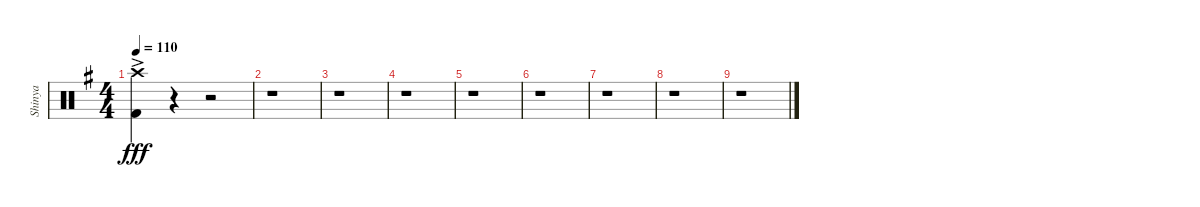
\track ("Shinya" "Shinya") {instrument percussion}
\staff {score}
\articulation defaults
\ts (4 4)
\tempo 110
\clef neutral
\ks g
("Crash high (hit)"{ac} "Kick (hit) 2").4{dy fff} r.4 r.2 |
r.1 |
r.1 |
r.1 |
r.1 |
r.1 |
r.1 |
r.1 |
r.1
